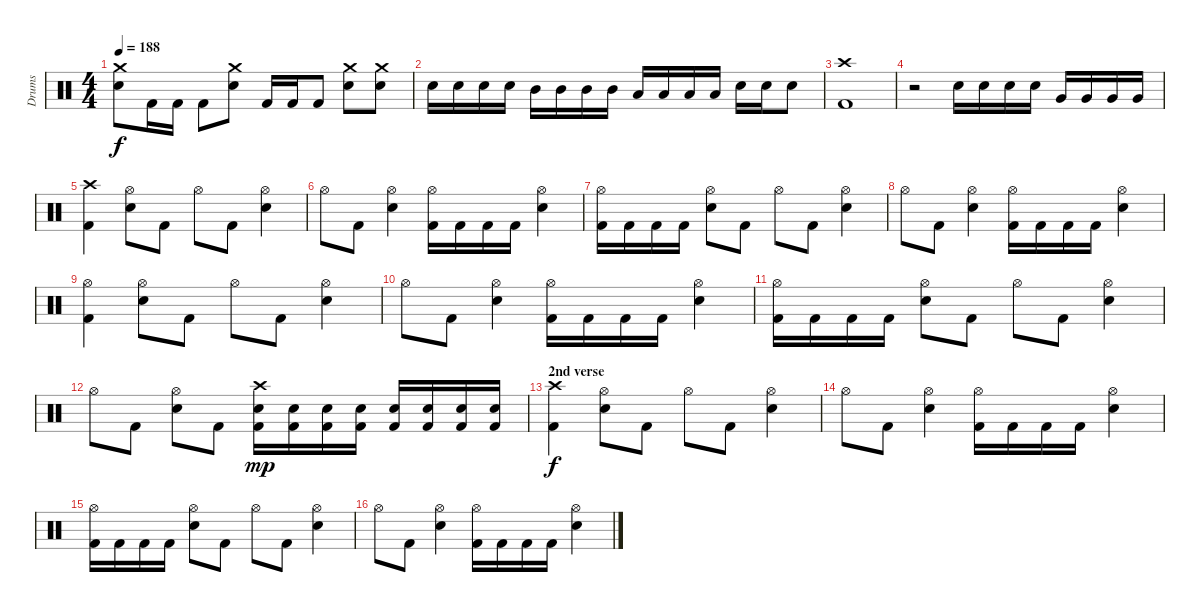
\track ("Drums" "Drums") {instrument percussion}
\staff {score}
\articulation defaults
\ts (4 4)
\tempo 188
\clef neutral
\ks c
("Crash medium (hit)" "Electric Snare (hit)").8{dy f} "Kick (hit) 2".16 "Kick (hit) 2".16 "Kick (hit) 2".8 ("Crash medium (hit)" "Electric Snare (hit)").8 "Kick (hit) 2".16 "Kick (hit) 2".16 "Kick (hit) 2".8 ("Crash medium (hit)" "Electric Snare (hit)").8 ("Crash medium (hit)" "Electric Snare (hit)").8 |
"Electric Snare (hit)".16 "Electric Snare (hit)".16 "Electric Snare (hit)".16 "Electric Snare (hit)".16 "Mid Tom (hit)".16 "Mid Tom (hit)".16 "Mid Tom (hit)".16 "Mid Tom (hit)".16 "Low Tom (hit)".16 "Low Tom (hit)".16 "Low Tom (hit)".16 "Low Tom (hit)".16 "Electric Snare (hit)".16 "Electric Snare (hit)".16 "Electric Snare (hit)".8 |
("Crash high (hit)" "Kick (hit) 2").1 |
r.2 "Electric Snare (hit)".16 "Electric Snare (hit)".16 "Electric Snare (hit)".16 "Electric Snare (hit)".16 "Very Low Tom (hit)".16 "Very Low Tom (hit)".16 "Very Low Tom (hit)".16 "Very Low Tom (hit)".16 |
("Crash high (hit)" "Kick (hit) 2").4 ("Hi-Hat (open)" "Electric Snare (hit)").8 "Kick (hit) 2".8 "Hi-Hat (open)".8 "Kick (hit) 2".8 ("Hi-Hat (open)" "Electric Snare (hit)").4 |
"Hi-Hat (open)".8 "Kick (hit) 2".8 ("Hi-Hat (open)" "Electric Snare (hit)").4 ("Hi-Hat (open)" "Kick (hit) 2").16 "Kick (hit) 2".16 "Kick (hit) 2".16 "Kick (hit) 2".16 ("Hi-Hat (open)" "Electric Snare (hit)").4 |
("Hi-Hat (open)" "Kick (hit) 2").16 "Kick (hit) 2".16 "Kick (hit) 2".16 "Kick (hit) 2".16 ("Hi-Hat (open)" "Electric Snare (hit)").8 "Kick (hit) 2".8 "Hi-Hat (open)".8 "Kick (hit) 2".8 ("Hi-Hat (open)" "Electric Snare (hit)").4 |
"Hi-Hat (open)".8 "Kick (hit) 2".8 ("Hi-Hat (open)" "Electric Snare (hit)").4 ("Hi-Hat (open)" "Kick (hit) 2").16 "Kick (hit) 2".16 "Kick (hit) 2".16 "Kick (hit) 2".16 ("Hi-Hat (open)" "Electric Snare (hit)").4 |
("Hi-Hat (open)" "Kick (hit) 2").4 ("Hi-Hat (open)" "Electric Snare (hit)").8 "Kick (hit) 2".8 "Hi-Hat (open)".8 "Kick (hit) 2".8 ("Hi-Hat (open)" "Electric Snare (hit)").4 |
"Hi-Hat (open)".8 "Kick (hit) 2".8 ("Hi-Hat (open)" "Electric Snare (hit)").4 ("Hi-Hat (open)" "Kick (hit) 2").16 "Kick (hit) 2".16 "Kick (hit) 2".16 "Kick (hit) 2".16 ("Hi-Hat (open)" "Electric Snare (hit)").4 |
("Hi-Hat (open)" "Kick (hit) 2").16 "Kick (hit) 2".16 "Kick (hit) 2".16 "Kick (hit) 2".16 ("Hi-Hat (open)" "Electric Snare (hit)").8 "Kick (hit) 2".8 "Hi-Hat (open)".8 "Kick (hit) 2".8 ("Hi-Hat (open)" "Electric Snare (hit)").4 |
"Hi-Hat (open)".8 "Kick (hit) 2".8 ("Hi-Hat (open)" "Electric Snare (hit)").8 "Kick (hit) 2".8 ("Crash high (hit)" "Electric Snare (hit)" "Kick (hit) 2").16{dy mp} ("Electric Snare (hit)" "Kick (hit) 2").16 ("Electric Snare (hit)" "Kick (hit) 2").16 ("Electric Snare (hit)" "Kick (hit) 2").16 ("Electric Snare (hit)" "Kick (hit) 2").16 ("Electric Snare (hit)" "Kick (hit) 2").16 ("Electric Snare (hit)" "Kick (hit) 2").16 ("Electric Snare (hit)" "Kick (hit) 2").16 |
\section ("" "2nd verse")
("Crash high (hit)" "Kick (hit) 2").4{dy f} ("Hi-Hat (open)" "Electric Snare (hit)").8 "Kick (hit) 2".8 "Hi-Hat (open)".8 "Kick (hit) 2".8 ("Hi-Hat (open)" "Electric Snare (hit)").4 |
"Hi-Hat (open)".8 "Kick (hit) 2".8 ("Hi-Hat (open)" "Electric Snare (hit)").4 ("Hi-Hat (open)" "Kick (hit) 2").16 "Kick (hit) 2".16 "Kick (hit) 2".16 "Kick (hit) 2".16 ("Hi-Hat (open)" "Electric Snare (hit)").4 |
("Hi-Hat (open)" "Kick (hit) 2").16 "Kick (hit) 2".16 "Kick (hit) 2".16 "Kick (hit) 2".16 ("Hi-Hat (open)" "Electric Snare (hit)").8 "Kick (hit) 2".8 "Hi-Hat (open)".8 "Kick (hit) 2".8 ("Hi-Hat (open)" "Electric Snare (hit)").4 |
"Hi-Hat (open)".8 "Kick (hit) 2".8 ("Hi-Hat (open)" "Electric Snare (hit)").4 ("Hi-Hat (open)" "Kick (hit) 2").16 "Kick (hit) 2".16 "Kick (hit) 2".16 "Kick (hit) 2".16 ("Hi-Hat (open)" "Electric Snare (hit)").4
